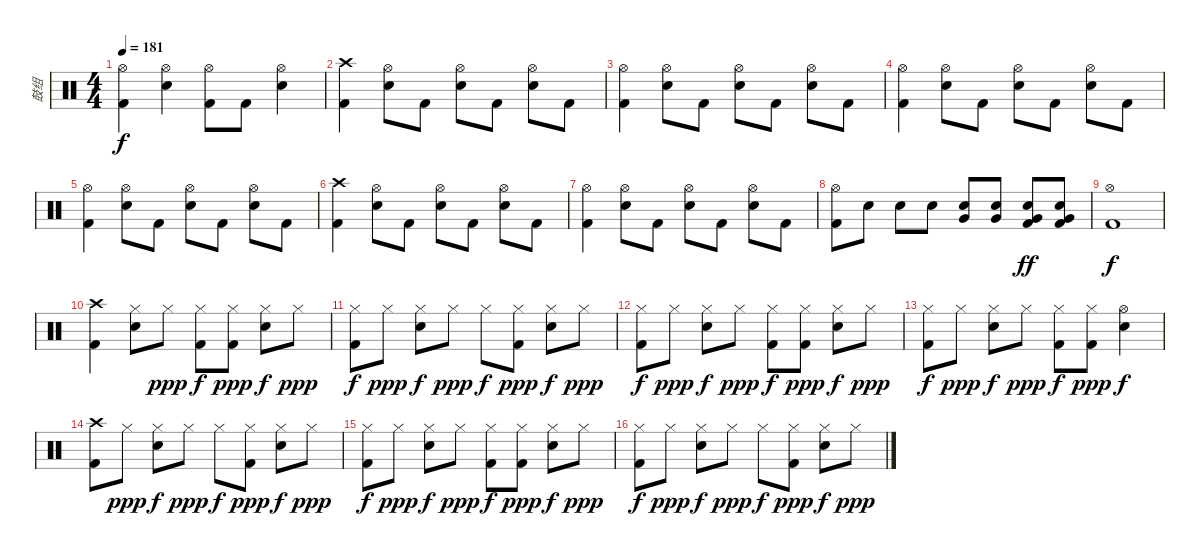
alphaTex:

\track ("鼓组" "鼓组") {instrument percussion}
\staff {score}
\articulation defaults
\ts (4 4)
\tempo 181
\clef neutral
\ks c
("Hi-Hat (open)" "Kick (hit) 2").4{dy f} ("Hi-Hat (open)" "Snare (hit) 2").4 ("Hi-Hat (open)" "Kick (hit) 2").8 "Kick (hit) 2".8 ("Hi-Hat (open)" "Snare (hit) 2").4 |
("Crash high (hit)" "Kick (hit) 2").4 ("Hi-Hat (open)" "Snare (hit) 2").8 "Kick (hit) 2".8 ("Hi-Hat (open)" "Snare (hit) 2").8 "Kick (hit) 2".8 ("Hi-Hat (open)" "Snare (hit) 2").8 "Kick (hit) 2".8 |
("Hi-Hat (open)" "Kick (hit) 2").4 ("Hi-Hat (open)" "Snare (hit) 2").8 "Kick (hit) 2".8 ("Hi-Hat (open)" "Snare (hit) 2").8 "Kick (hit) 2".8 ("Hi-Hat (open)" "Snare (hit) 2").8 "Kick (hit) 2".8 |
("Hi-Hat (open)" "Kick (hit) 2").4 ("Hi-Hat (open)" "Snare (hit) 2").8 "Kick (hit) 2".8 ("Hi-Hat (open)" "Snare (hit) 2").8 "Kick (hit) 2".8 ("Hi-Hat (open)" "Snare (hit) 2").8 "Kick (hit) 2".8 |
("Hi-Hat (open)" "Kick (hit) 2").4 ("Hi-Hat (open)" "Snare (hit) 2").8 "Kick (hit) 2".8 ("Hi-Hat (open)" "Snare (hit) 2").8 "Kick (hit) 2".8 ("Hi-Hat (open)" "Snare (hit) 2").8 "Kick (hit) 2".8 |
("Crash high (hit)" "Kick (hit) 2").4 ("Hi-Hat (open)" "Snare (hit) 2").8 "Kick (hit) 2".8 ("Hi-Hat (open)" "Snare (hit) 2").8 "Kick (hit) 2".8 ("Hi-Hat (open)" "Snare (hit) 2").8 "Kick (hit) 2".8 |
("Hi-Hat (open)" "Kick (hit) 2").4 ("Hi-Hat (open)" "Snare (hit) 2").8 "Kick (hit) 2".8 ("Hi-Hat (open)" "Snare (hit) 2").8 "Kick (hit) 2".8 ("Hi-Hat (open)" "Snare (hit) 2").8 "Kick (hit) 2".8 |
("Hi-Hat (open)" "Kick (hit) 2").8 "Snare (hit) 2".8 "Snare (hit) 2".8 "Snare (hit) 2".8 ("Very Low Tom (hit)" "Snare (hit) 2").8 ("Very Low Tom (hit)" "Snare (hit) 2").8 ("Very Low Tom (hit)" "Snare (hit) 2" "Kick (hit) 2").8{dy ff} ("Very Low Tom (hit)" "Snare (hit) 2" "Kick (hit) 2").8 |
("Hi-Hat (open)" "Kick (hit) 2").1{dy f} |
("Crash high (hit)" "Kick (hit) 2").4 ("Hi-Hat (closed)" "Snare (hit) 2").8 "Hi-Hat (closed)".8{dy ppp} ("Hi-Hat (closed)" "Kick (hit) 2").8{dy f} ("Hi-Hat (closed)" "Kick (hit) 2").8{dy ppp} ("Hi-Hat (closed)" "Snare (hit) 2").8{dy f} "Hi-Hat (closed)".8{dy ppp} |
("Hi-Hat (closed)" "Kick (hit) 2").8{dy f} "Hi-Hat (closed)".8{dy ppp} ("Hi-Hat (closed)" "Snare (hit) 2").8{dy f} "Hi-Hat (closed)".8{dy ppp} "Hi-Hat (closed)".8{dy f} ("Hi-Hat (closed)" "Kick (hit) 2").8{dy ppp} ("Hi-Hat (closed)" "Snare (hit) 2").8{dy f} "Hi-Hat (closed)".8{dy ppp} |
("Hi-Hat (closed)" "Kick (hit) 2").8{dy f} "Hi-Hat (closed)".8{dy ppp} ("Hi-Hat (closed)" "Snare (hit) 2").8{dy f} "Hi-Hat (closed)".8{dy ppp} ("Hi-Hat (closed)" "Kick (hit) 2").8{dy f} ("Hi-Hat (closed)" "Kick (hit) 2").8{dy ppp} ("Hi-Hat (closed)" "Snare (hit) 2").8{dy f} "Hi-Hat (closed)".8{dy ppp} |
("Hi-Hat (closed)" "Kick (hit) 2").8{dy f} "Hi-Hat (closed)".8{dy ppp} ("Hi-Hat (closed)" "Snare (hit) 2").8{dy f} "Hi-Hat (closed)".8{dy ppp} ("Hi-Hat (closed)" "Kick (hit) 2").8{dy f} ("Hi-Hat (closed)" "Kick (hit) 2").8{dy ppp} ("Hi-Hat (open)" "Snare (hit) 2").4{dy f} |
("Crash high (hit)" "Kick (hit) 2").8 "Hi-Hat (closed)".8{dy ppp} ("Hi-Hat (closed)" "Snare (hit) 2").8{dy f} "Hi-Hat (closed)".8{dy ppp} "Hi-Hat (closed)".8{dy f} ("Hi-Hat (closed)" "Kick (hit) 2").8{dy ppp} ("Hi-Hat (closed)" "Snare (hit) 2").8{dy f} "Hi-Hat (closed)".8{dy ppp} |
("Hi-Hat (closed)" "Kick (hit) 2").8{dy f} "Hi-Hat (closed)".8{dy ppp} ("Hi-Hat (closed)" "Snare (hit) 2").8{dy f} "Hi-Hat (closed)".8{dy ppp} ("Hi-Hat (closed)" "Kick (hit) 2").8{dy f} ("Hi-Hat (closed)" "Kick (hit) 2").8{dy ppp} ("Hi-Hat (closed)" "Snare (hit) 2").8{dy f} "Hi-Hat (closed)".8{dy ppp} |
("Hi-Hat (closed)" "Kick (hit) 2").8{dy f} "Hi-Hat (closed)".8{dy ppp} ("Hi-Hat (closed)" "Snare (hit) 2").8{dy f} "Hi-Hat (closed)".8{dy ppp} "Hi-Hat (closed)".8{dy f} ("Hi-Hat (closed)" "Kick (hit) 2").8{dy ppp} ("Hi-Hat (closed)" "Snare (hit) 2").8{dy f} "Hi-Hat (closed)".8{dy ppp}
